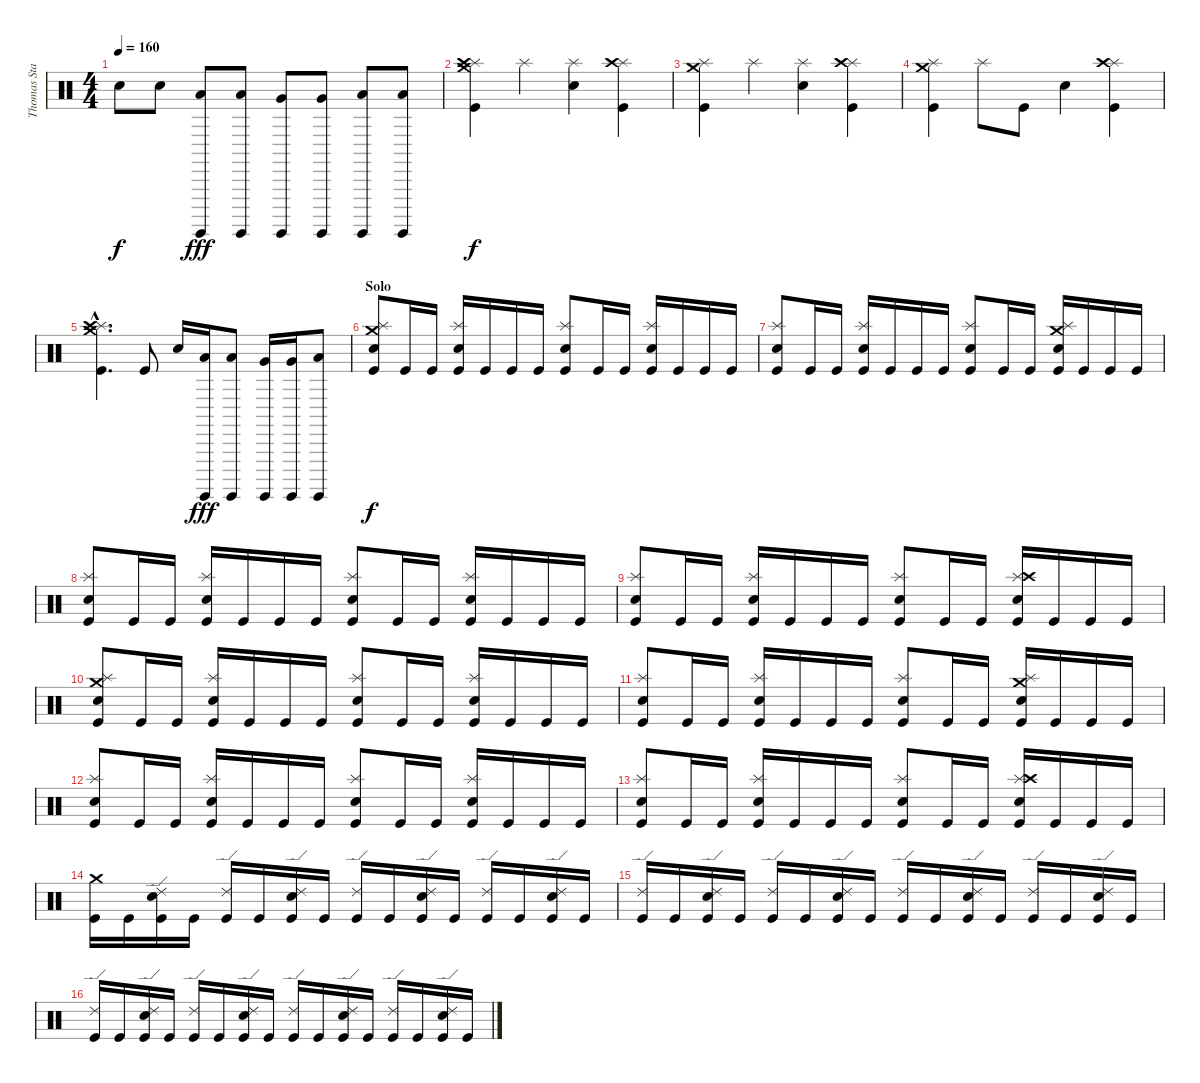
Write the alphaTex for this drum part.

\track ("Thomas Stauch" "Thomas Sta") {instrument percussion}
\staff {score}
\articulation defaults
\ts (4 4)
\tempo 160
\clef neutral
\ks c "Electric Snare (hit)".8{dy f} "Electric Snare (hit)".8
("Surdo (hit)" "Low Tom (hit)").8{dy fff} ("Surdo (hit)" "Low Tom (hit)").8 ("Surdo (hit)" "Very Low Tom (hit)").8 ("Surdo (hit)" "Very Low Tom (hit)").8 ("Surdo (hit)" "Low Floor Tom (hit)").8 ("Surdo (hit)" "Low Floor Tom (hit)").8 |
("Crash medium (hit)" "Splash (hit)" "Crash high (hit)" "Kick (hit)").4{dy f} "Splash (hit)".4 ("Splash (hit)" "Electric Snare (hit)").4 ("Splash (hit)" "Crash high (hit)" "Kick (hit)").4 |
("Crash medium (hit)" "Splash (hit)" "Kick (hit)").4 "Splash (hit)".4 ("Splash (hit)" "Electric Snare (hit)").4 ("Splash (hit)" "Crash high (hit)" "Kick (hit)").4 |
("Crash medium (hit)" "Splash (hit)" "Kick (hit)").4 "Splash (hit)".8 "Kick (hit)".8 "Electric Snare (hit)".4 ("Splash (hit)" "Crash high (hit)" "Kick (hit)").4 |
("Crash medium (hit)"{hac} "Splash (hit)"{hac} "Crash high (hit)"{hac} "Kick (hit)"{hac}).4{d} "Kick (hit)".8 "Electric Snare (hit)".16 ("Surdo (hit)" "Low Tom (hit)").16{dy fff} ("Surdo (hit)" "Low Tom (hit)").8 ("Surdo (hit)" "Very Low Tom (hit)").16 ("Surdo (hit)" "Very Low Tom (hit)").16 ("Surdo (hit)" "Low Floor Tom (hit)").8 |
\section ("" "Solo")
("Crash medium (hit)" "Splash (hit)" "Electric Snare (hit)" "Kick (hit)").8{dy f} "Kick (hit)".16 "Kick (hit)".16 ("Splash (hit)" "Electric Snare (hit)" "Kick (hit)").16 "Kick (hit)".16 "Kick (hit)".16 "Kick (hit)".16 ("Splash (hit)" "Electric Snare (hit)" "Kick (hit)").8 "Kick (hit)".16 "Kick (hit)".16 ("Splash (hit)" "Electric Snare (hit)" "Kick (hit)").16 "Kick (hit)".16 "Kick (hit)".16 "Kick (hit)".16 |
("Splash (hit)" "Electric Snare (hit)" "Kick (hit)").8 "Kick (hit)".16 "Kick (hit)".16 ("Splash (hit)" "Electric Snare (hit)" "Kick (hit)").16 "Kick (hit)".16 "Kick (hit)".16 "Kick (hit)".16 ("Splash (hit)" "Electric Snare (hit)" "Kick (hit)").8 "Kick (hit)".16 "Kick (hit)".16 ("Crash medium (hit)" "Splash (hit)" "Electric Snare (hit)" "Kick (hit)").16 "Kick (hit)".16 "Kick (hit)".16 "Kick (hit)".16 |
("Splash (hit)" "Electric Snare (hit)" "Kick (hit)").8 "Kick (hit)".16 "Kick (hit)".16 ("Splash (hit)" "Electric Snare (hit)" "Kick (hit)").16 "Kick (hit)".16 "Kick (hit)".16 "Kick (hit)".16 ("Splash (hit)" "Electric Snare (hit)" "Kick (hit)").8 "Kick (hit)".16 "Kick (hit)".16 ("Splash (hit)" "Electric Snare (hit)" "Kick (hit)").16 "Kick (hit)".16 "Kick (hit)".16 "Kick (hit)".16 |
("Splash (hit)" "Electric Snare (hit)" "Kick (hit)").8 "Kick (hit)".16 "Kick (hit)".16 ("Splash (hit)" "Electric Snare (hit)" "Kick (hit)").16 "Kick (hit)".16 "Kick (hit)".16 "Kick (hit)".16 ("Splash (hit)" "Electric Snare (hit)" "Kick (hit)").8 "Kick (hit)".16 "Kick (hit)".16 ("Splash (hit)" "Crash high (hit)" "Electric Snare (hit)" "Kick (hit)").16 "Kick (hit)".16 "Kick (hit)".16 "Kick (hit)".16 |
("Crash medium (hit)" "Splash (hit)" "Electric Snare (hit)" "Kick (hit)").8 "Kick (hit)".16 "Kick (hit)".16 ("Splash (hit)" "Electric Snare (hit)" "Kick (hit)").16 "Kick (hit)".16 "Kick (hit)".16 "Kick (hit)".16 ("Splash (hit)" "Electric Snare (hit)" "Kick (hit)").8 "Kick (hit)".16 "Kick (hit)".16 ("Splash (hit)" "Electric Snare (hit)" "Kick (hit)").16 "Kick (hit)".16 "Kick (hit)".16 "Kick (hit)".16 |
("Splash (hit)" "Electric Snare (hit)" "Kick (hit)").8 "Kick (hit)".16 "Kick (hit)".16 ("Splash (hit)" "Electric Snare (hit)" "Kick (hit)").16 "Kick (hit)".16 "Kick (hit)".16 "Kick (hit)".16 ("Splash (hit)" "Electric Snare (hit)" "Kick (hit)").8 "Kick (hit)".16 "Kick (hit)".16 ("Crash medium (hit)" "Splash (hit)" "Electric Snare (hit)" "Kick (hit)").16 "Kick (hit)".16 "Kick (hit)".16 "Kick (hit)".16 |
("Splash (hit)" "Electric Snare (hit)" "Kick (hit)").8 "Kick (hit)".16 "Kick (hit)".16 ("Splash (hit)" "Electric Snare (hit)" "Kick (hit)").16 "Kick (hit)".16 "Kick (hit)".16 "Kick (hit)".16 ("Splash (hit)" "Electric Snare (hit)" "Kick (hit)").8 "Kick (hit)".16 "Kick (hit)".16 ("Splash (hit)" "Electric Snare (hit)" "Kick (hit)").16 "Kick (hit)".16 "Kick (hit)".16 "Kick (hit)".16 |
("Splash (hit)" "Electric Snare (hit)" "Kick (hit)").8 "Kick (hit)".16 "Kick (hit)".16 ("Splash (hit)" "Electric Snare (hit)" "Kick (hit)").16 "Kick (hit)".16 "Kick (hit)".16 "Kick (hit)".16 ("Splash (hit)" "Electric Snare (hit)" "Kick (hit)").8 "Kick (hit)".16 "Kick (hit)".16 ("Splash (hit)" "Crash high (hit)" "Electric Snare (hit)" "Kick (hit)").16 "Kick (hit)".16 "Kick (hit)".16 "Kick (hit)".16 |
("Crash medium (hit)" "Kick (hit)").16 "Kick (hit)".16 ("Ride (edge) 2" "Electric Snare (hit)" "Kick (hit)").16 "Kick (hit)".16 ("Ride (edge) 2" "Kick (hit)").16 "Kick (hit)".16 ("Ride (edge) 2" "Electric Snare (hit)" "Kick (hit)").16 "Kick (hit)".16 ("Ride (edge) 2" "Kick (hit)").16 "Kick (hit)".16 ("Ride (edge) 2" "Electric Snare (hit)" "Kick (hit)").16 "Kick (hit)".16 ("Ride (edge) 2" "Kick (hit)").16 "Kick (hit)".16 ("Ride (edge) 2" "Electric Snare (hit)" "Kick (hit)").16 "Kick (hit)".16 |
("Ride (edge) 2" "Kick (hit)").16 "Kick (hit)".16 ("Ride (edge) 2" "Electric Snare (hit)" "Kick (hit)").16 "Kick (hit)".16 ("Ride (edge) 2" "Kick (hit)").16 "Kick (hit)".16 ("Ride (edge) 2" "Electric Snare (hit)" "Kick (hit)").16 "Kick (hit)".16 ("Ride (edge) 2" "Kick (hit)").16 "Kick (hit)".16 ("Ride (edge) 2" "Electric Snare (hit)" "Kick (hit)").16 "Kick (hit)".16 ("Ride (edge) 2" "Kick (hit)").16 "Kick (hit)".16 ("Ride (edge) 2" "Electric Snare (hit)" "Kick (hit)").16 "Kick (hit)".16 |
("Ride (edge) 2" "Kick (hit)").16 "Kick (hit)".16 ("Ride (edge) 2" "Electric Snare (hit)" "Kick (hit)").16 "Kick (hit)".16 ("Ride (edge) 2" "Kick (hit)").16 "Kick (hit)".16 ("Ride (edge) 2" "Electric Snare (hit)" "Kick (hit)").16 "Kick (hit)".16 ("Ride (edge) 2" "Kick (hit)").16 "Kick (hit)".16 ("Ride (edge) 2" "Electric Snare (hit)" "Kick (hit)").16 "Kick (hit)".16 ("Ride (edge) 2" "Kick (hit)").16 "Kick (hit)".16 ("Ride (edge) 2" "Electric Snare (hit)" "Kick (hit)").16 "Kick (hit)".16
